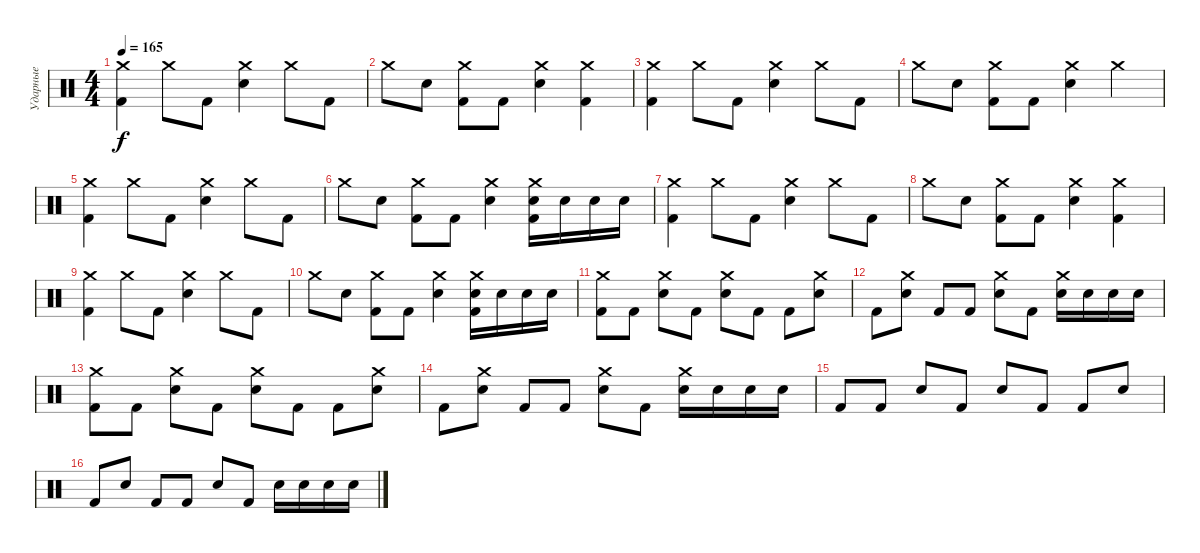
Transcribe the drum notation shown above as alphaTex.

\track ("Ударные" "Ударные") {instrument percussion}
\staff {score}
\articulation defaults
\ts (4 4)
\tempo 165
\clef neutral
\ks c
("Crash medium (hit)" "Kick (hit) 2").4{dy f} "Crash medium (hit)".8 "Kick (hit) 2".8 ("Crash medium (hit)" "Snare (hit) 2").4 "Crash medium (hit)".8 "Kick (hit) 2".8 |
"Crash medium (hit)".8 "Snare (hit) 2".8 ("Crash medium (hit)" "Kick (hit) 2").8 "Kick (hit) 2".8 ("Crash medium (hit)" "Snare (hit) 2").4 ("Crash medium (hit)" "Kick (hit) 2").4 |
("Crash medium (hit)" "Kick (hit) 2").4 "Crash medium (hit)".8 "Kick (hit) 2".8 ("Crash medium (hit)" "Snare (hit) 2").4 "Crash medium (hit)".8 "Kick (hit) 2".8 |
"Crash medium (hit)".8 "Snare (hit) 2".8 ("Crash medium (hit)" "Kick (hit) 2").8 "Kick (hit) 2".8 ("Crash medium (hit)" "Snare (hit) 2").4 "Crash medium (hit)".4 |
("Crash medium (hit)" "Kick (hit) 2").4 "Crash medium (hit)".8 "Kick (hit) 2".8 ("Crash medium (hit)" "Snare (hit) 2").4 "Crash medium (hit)".8 "Kick (hit) 2".8 |
"Crash medium (hit)".8 "Snare (hit) 2".8 ("Crash medium (hit)" "Kick (hit) 2").8 "Kick (hit) 2".8 ("Crash medium (hit)" "Snare (hit) 2").4 ("Crash medium (hit)" "Snare (hit) 2" "Kick (hit) 2").16 "Snare (hit) 2".16 "Snare (hit) 2".16 "Snare (hit) 2".16 |
("Crash medium (hit)" "Kick (hit) 2").4 "Crash medium (hit)".8 "Kick (hit) 2".8 ("Crash medium (hit)" "Snare (hit) 2").4 "Crash medium (hit)".8 "Kick (hit) 2".8 |
"Crash medium (hit)".8 "Snare (hit) 2".8 ("Crash medium (hit)" "Kick (hit) 2").8 "Kick (hit) 2".8 ("Crash medium (hit)" "Snare (hit) 2").4 ("Crash medium (hit)" "Kick (hit) 2").4 |
("Crash medium (hit)" "Kick (hit) 2").4 "Crash medium (hit)".8 "Kick (hit) 2".8 ("Crash medium (hit)" "Snare (hit) 2").4 "Crash medium (hit)".8 "Kick (hit) 2".8 |
"Crash medium (hit)".8 "Snare (hit) 2".8 ("Crash medium (hit)" "Kick (hit) 2").8 "Kick (hit) 2".8 ("Crash medium (hit)" "Snare (hit) 2").4 ("Crash medium (hit)" "Snare (hit) 2" "Kick (hit) 2").16 "Snare (hit) 2".16 "Snare (hit) 2".16 "Snare (hit) 2".16 |
("Crash medium (hit)" "Kick (hit) 2").8 "Kick (hit) 2".8 ("Crash medium (hit)" "Snare (hit) 2").8 "Kick (hit) 2".8 ("Crash medium (hit)" "Snare (hit) 2").8 "Kick (hit) 2".8 "Kick (hit) 2".8 ("Crash medium (hit)" "Snare (hit) 2").8 |
"Kick (hit) 2".8 ("Crash medium (hit)" "Snare (hit) 2").8 "Kick (hit) 2".8 "Kick (hit) 2".8 ("Crash medium (hit)" "Snare (hit) 2").8 "Kick (hit) 2".8 ("Crash medium (hit)" "Snare (hit) 2").16 "Snare (hit) 2".16 "Snare (hit) 2".16 "Snare (hit) 2".16 |
("Crash medium (hit)" "Kick (hit) 2").8 "Kick (hit) 2".8 ("Crash medium (hit)" "Snare (hit) 2").8 "Kick (hit) 2".8 ("Crash medium (hit)" "Snare (hit) 2").8 "Kick (hit) 2".8 "Kick (hit) 2".8 ("Crash medium (hit)" "Snare (hit) 2").8 |
"Kick (hit) 2".8 ("Crash medium (hit)" "Snare (hit) 2").8 "Kick (hit) 2".8 "Kick (hit) 2".8 ("Crash medium (hit)" "Snare (hit) 2").8 "Kick (hit) 2".8 ("Crash medium (hit)" "Snare (hit) 2").16 "Snare (hit) 2".16 "Snare (hit) 2".16 "Snare (hit) 2".16 |
"Kick (hit) 2".8 "Kick (hit) 2".8 "Snare (hit) 2".8 "Kick (hit) 2".8 "Snare (hit) 2".8 "Kick (hit) 2".8 "Kick (hit) 2".8 "Snare (hit) 2".8 |
"Kick (hit) 2".8 "Snare (hit) 2".8 "Kick (hit) 2".8 "Kick (hit) 2".8 "Snare (hit) 2".8 "Kick (hit) 2".8 "Snare (hit) 2".16 "Snare (hit) 2".16 "Snare (hit) 2".16 "Snare (hit) 2".16
